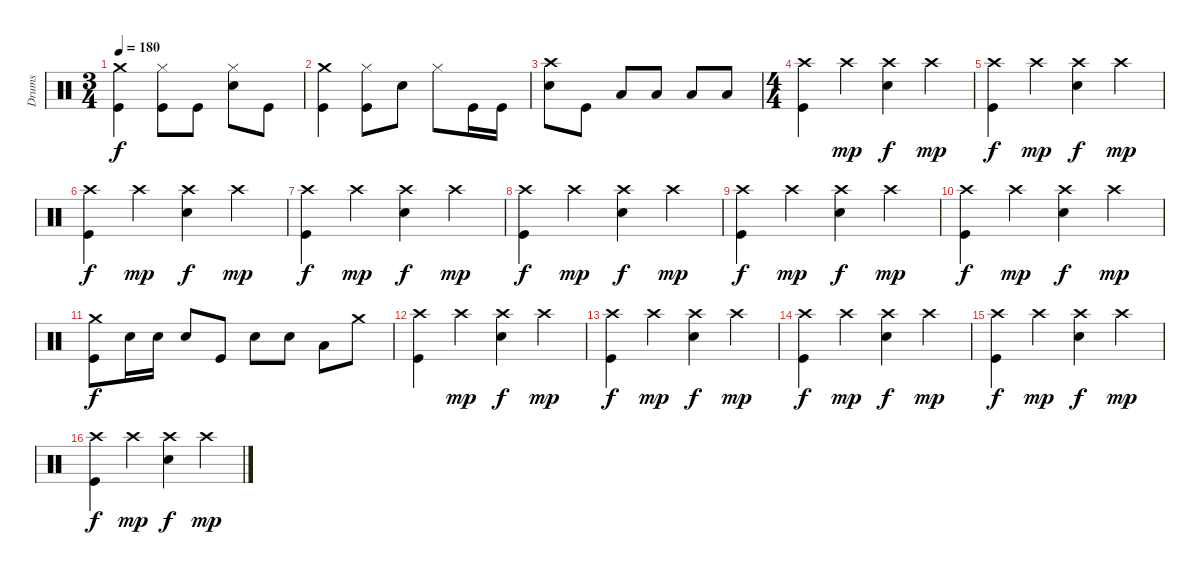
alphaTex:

\track ("Drums" "Drums") {instrument percussion}
\staff {score}
\articulation defaults
\ts (3 4)
\tempo 180
\clef neutral
\ks c
("Crash medium (hit)" "Kick (hit)").4{dy f} ("Hi-Hat (closed)" "Kick (hit)").8 "Kick (hit)".8 ("Hi-Hat (closed)" "Electric Snare (hit)").8 "Kick (hit)".8 |
("Crash medium (hit)" "Kick (hit)").4 ("Hi-Hat (closed)" "Kick (hit)").8 "Electric Snare (hit)".8 "Hi-Hat (closed)".8 "Kick (hit)".16 "Kick (hit)".16 |
("Crash high (hit)" "Electric Snare (hit)").8 "Kick (hit)".8 "Low Floor Tom (hit)".8 "Low Floor Tom (hit)".8 "Low Floor Tom (hit)".8 "Low Floor Tom (hit)".8 |
\ts (4 4)
("Crash high (hit)" "Kick (hit)").4 "Crash high (hit)".4{dy mp} ("Crash high (hit)" "Electric Snare (hit)").4{dy f} "Crash high (hit)".4{dy mp} |
("Crash high (hit)" "Kick (hit)").4{dy f} "Crash high (hit)".4{dy mp} ("Crash high (hit)" "Electric Snare (hit)").4{dy f} "Crash high (hit)".4{dy mp} |
("Crash high (hit)" "Kick (hit)").4{dy f} "Crash high (hit)".4{dy mp} ("Crash high (hit)" "Electric Snare (hit)").4{dy f} "Crash high (hit)".4{dy mp} |
("Crash high (hit)" "Kick (hit)").4{dy f} "Crash high (hit)".4{dy mp} ("Crash high (hit)" "Electric Snare (hit)").4{dy f} "Crash high (hit)".4{dy mp} |
("Crash high (hit)" "Kick (hit)").4{dy f} "Crash high (hit)".4{dy mp} ("Crash high (hit)" "Electric Snare (hit)").4{dy f} "Crash high (hit)".4{dy mp} |
("Crash high (hit)" "Kick (hit)").4{dy f} "Crash high (hit)".4{dy mp} ("Crash high (hit)" "Electric Snare (hit)").4{dy f} "Crash high (hit)".4{dy mp} |
("Crash high (hit)" "Kick (hit)").4{dy f} "Crash high (hit)".4{dy mp} ("Crash high (hit)" "Electric Snare (hit)").4{dy f} "Crash high (hit)".4{dy mp} |
("Crash medium (hit)" "Kick (hit)").8{dy f} "Electric Snare (hit)".16 "Electric Snare (hit)".16 "Electric Snare (hit)".8 "Kick (hit)".8 "Electric Snare (hit)".8 "Electric Snare (hit)".8 "Low Tom (hit)".8 "Crash medium (hit)".8 |
("Crash high (hit)" "Kick (hit)").4 "Crash high (hit)".4{dy mp} ("Crash high (hit)" "Electric Snare (hit)").4{dy f} "Crash high (hit)".4{dy mp} |
("Crash high (hit)" "Kick (hit)").4{dy f} "Crash high (hit)".4{dy mp} ("Crash high (hit)" "Electric Snare (hit)").4{dy f} "Crash high (hit)".4{dy mp} |
("Crash high (hit)" "Kick (hit)").4{dy f} "Crash high (hit)".4{dy mp} ("Crash high (hit)" "Electric Snare (hit)").4{dy f} "Crash high (hit)".4{dy mp} |
("Crash high (hit)" "Kick (hit)").4{dy f} "Crash high (hit)".4{dy mp} ("Crash high (hit)" "Electric Snare (hit)").4{dy f} "Crash high (hit)".4{dy mp} |
("Crash high (hit)" "Kick (hit)").4{dy f} "Crash high (hit)".4{dy mp} ("Crash high (hit)" "Electric Snare (hit)").4{dy f} "Crash high (hit)".4{dy mp}
